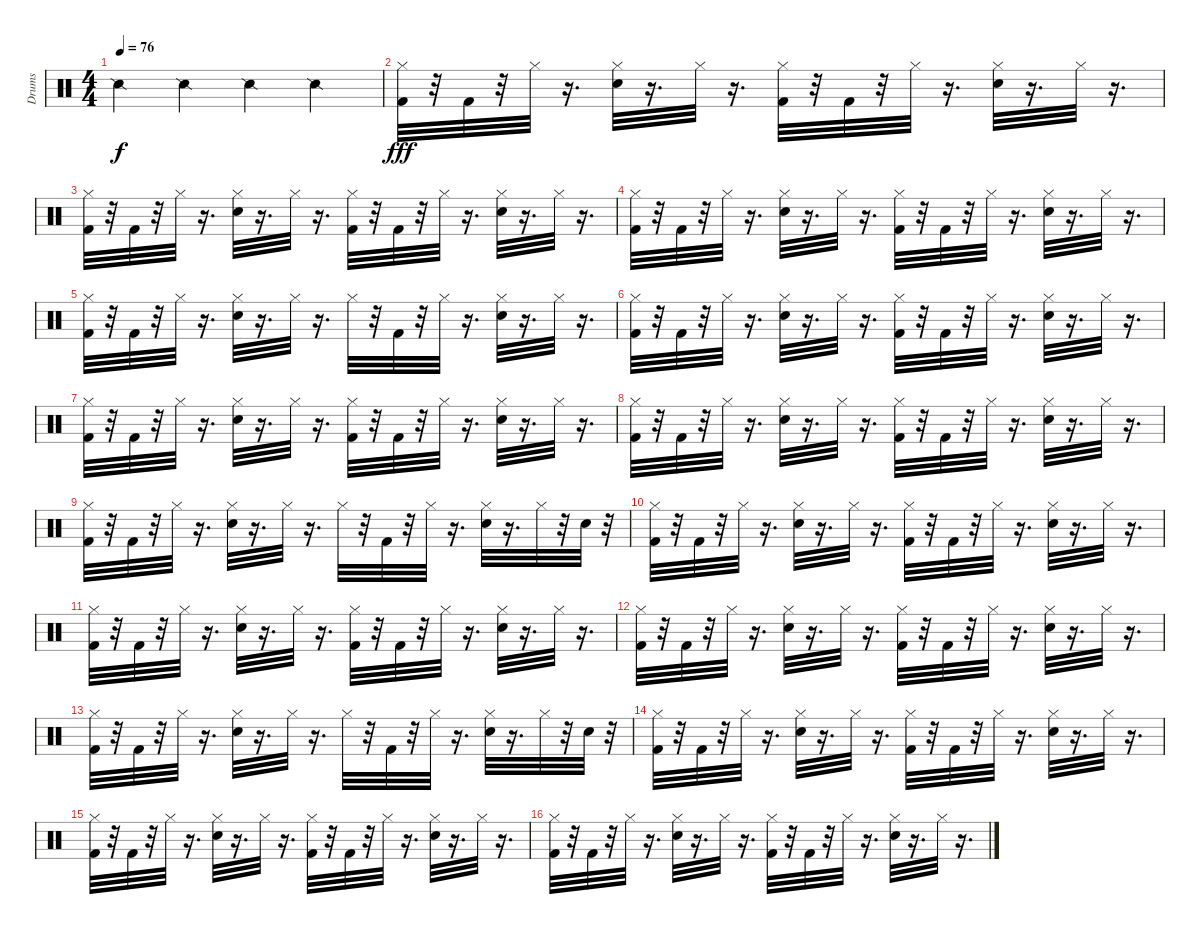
\track ("Drums" "Drums") {instrument percussion}
\staff {score}
\articulation defaults
\ts (4 4)
\tempo 76
\clef neutral
\ks c "Snare (side stick) 2".4{dy f} "Snare (side stick) 2".4 "Snare (side stick) 2".4 "Snare (side stick) 2".4
|
("Hi-Hat (closed)" "Kick (hit) 2").32{dy fff} r.32 "Kick (hit) 2".32 r.32 "Hi-Hat (closed)".32 r.16{d} ("Hi-Hat (closed)" "Electric Snare (hit)").32 r.16{d} "Hi-Hat (closed)".32 r.16{d} ("Hi-Hat (closed)" "Kick (hit) 2").32 r.32 "Kick (hit) 2".32 r.32 "Hi-Hat (closed)".32 r.16{d} ("Hi-Hat (closed)" "Electric Snare (hit)").32 r.16{d} "Hi-Hat (closed)".32 r.16{d} |
("Kick (hit) 2" "Hi-Hat (closed)").32 r.32 "Kick (hit) 2".32 r.32 "Hi-Hat (closed)".32 r.16{d} ("Electric Snare (hit)" "Hi-Hat (closed)").32 r.16{d} "Hi-Hat (closed)".32 r.16{d} ("Kick (hit) 2" "Hi-Hat (closed)").32 r.32 "Kick (hit) 2".32 r.32 "Hi-Hat (closed)".32 r.16{d} ("Electric Snare (hit)" "Hi-Hat (closed)").32 r.16{d} "Hi-Hat (closed)".32 r.16{d} |
("Hi-Hat (closed)" "Kick (hit) 2").32 r.32 "Kick (hit) 2".32 r.32 "Hi-Hat (closed)".32 r.16{d} ("Hi-Hat (closed)" "Electric Snare (hit)").32 r.16{d} "Hi-Hat (closed)".32 r.16{d} ("Hi-Hat (closed)" "Kick (hit) 2").32 r.32 "Kick (hit) 2".32 r.32 "Hi-Hat (closed)".32 r.16{d} ("Hi-Hat (closed)" "Electric Snare (hit)").32 r.16{d} "Hi-Hat (closed)".32 r.16{d} |
("Kick (hit) 2" "Hi-Hat (closed)").32 r.32 "Kick (hit) 2".32 r.32 "Hi-Hat (closed)".32 r.16{d} ("Electric Snare (hit)" "Hi-Hat (closed)").32 r.16{d} "Hi-Hat (closed)".32 r.16{d} "Hi-Hat (closed)".32 r.32 "Kick (hit) 2".32 r.32 "Hi-Hat (closed)".32 r.16{d} ("Electric Snare (hit)" "Hi-Hat (closed)").32 r.16{d} "Hi-Hat (closed)".32 r.16{d} |
("Hi-Hat (closed)" "Kick (hit) 2").32 r.32 "Kick (hit) 2".32 r.32 "Hi-Hat (closed)".32 r.16{d} ("Hi-Hat (closed)" "Electric Snare (hit)").32 r.16{d} "Hi-Hat (closed)".32 r.16{d} ("Hi-Hat (closed)" "Kick (hit) 2").32 r.32 "Kick (hit) 2".32 r.32 "Hi-Hat (closed)".32 r.16{d} ("Hi-Hat (closed)" "Electric Snare (hit)").32 r.16{d} "Hi-Hat (closed)".32 r.16{d} |
("Kick (hit) 2" "Hi-Hat (closed)").32 r.32 "Kick (hit) 2".32 r.32 "Hi-Hat (closed)".32 r.16{d} ("Electric Snare (hit)" "Hi-Hat (closed)").32 r.16{d} "Hi-Hat (closed)".32 r.16{d} ("Kick (hit) 2" "Hi-Hat (closed)").32 r.32 "Kick (hit) 2".32 r.32 "Hi-Hat (closed)".32 r.16{d} ("Electric Snare (hit)" "Hi-Hat (closed)").32 r.16{d} "Hi-Hat (closed)".32 r.16{d} |
("Hi-Hat (closed)" "Kick (hit) 2").32 r.32 "Kick (hit) 2".32 r.32 "Hi-Hat (closed)".32 r.16{d} ("Hi-Hat (closed)" "Electric Snare (hit)").32 r.16{d} "Hi-Hat (closed)".32 r.16{d} ("Hi-Hat (closed)" "Kick (hit) 2").32 r.32 "Kick (hit) 2".32 r.32 "Hi-Hat (closed)".32 r.16{d} ("Hi-Hat (closed)" "Electric Snare (hit)").32 r.16{d} "Hi-Hat (closed)".32 r.16{d} |
("Kick (hit) 2" "Hi-Hat (closed)").32 r.32 "Kick (hit) 2".32 r.32 "Hi-Hat (closed)".32 r.16{d} ("Electric Snare (hit)" "Hi-Hat (closed)").32 r.16{d} "Hi-Hat (closed)".32 r.16{d} "Hi-Hat (closed)".32 r.32 "Kick (hit) 2".32 r.32 "Hi-Hat (closed)".32 r.16{d} ("Electric Snare (hit)" "Hi-Hat (closed)").32 r.16{d} "Hi-Hat (closed)".32 r.32 "Electric Snare (hit)".32 r.32 |
("Hi-Hat (closed)" "Kick (hit) 2").32 r.32 "Kick (hit) 2".32 r.32 "Hi-Hat (closed)".32 r.16{d} ("Hi-Hat (closed)" "Electric Snare (hit)").32 r.16{d} "Hi-Hat (closed)".32 r.16{d} ("Hi-Hat (closed)" "Kick (hit) 2").32 r.32 "Kick (hit) 2".32 r.32 "Hi-Hat (closed)".32 r.16{d} ("Hi-Hat (closed)" "Electric Snare (hit)").32 r.16{d} "Hi-Hat (closed)".32 r.16{d} |
("Kick (hit) 2" "Hi-Hat (closed)").32 r.32 "Kick (hit) 2".32 r.32 "Hi-Hat (closed)".32 r.16{d} ("Electric Snare (hit)" "Hi-Hat (closed)").32 r.16{d} "Hi-Hat (closed)".32 r.16{d} ("Kick (hit) 2" "Hi-Hat (closed)").32 r.32 "Kick (hit) 2".32 r.32 "Hi-Hat (closed)".32 r.16{d} ("Electric Snare (hit)" "Hi-Hat (closed)").32 r.16{d} "Hi-Hat (closed)".32 r.16{d} |
("Hi-Hat (closed)" "Kick (hit) 2").32 r.32 "Kick (hit) 2".32 r.32 "Hi-Hat (closed)".32 r.16{d} ("Hi-Hat (closed)" "Electric Snare (hit)").32 r.16{d} "Hi-Hat (closed)".32 r.16{d} ("Hi-Hat (closed)" "Kick (hit) 2").32 r.32 "Kick (hit) 2".32 r.32 "Hi-Hat (closed)".32 r.16{d} ("Hi-Hat (closed)" "Electric Snare (hit)").32 r.16{d} "Hi-Hat (closed)".32 r.16{d} |
("Kick (hit) 2" "Hi-Hat (closed)").32 r.32 "Kick (hit) 2".32 r.32 "Hi-Hat (closed)".32 r.16{d} ("Electric Snare (hit)" "Hi-Hat (closed)").32 r.16{d} "Hi-Hat (closed)".32 r.16{d} "Hi-Hat (closed)".32 r.32 "Kick (hit) 2".32 r.32 "Hi-Hat (closed)".32 r.16{d} ("Electric Snare (hit)" "Hi-Hat (closed)").32 r.16{d} "Hi-Hat (closed)".32 r.32 "Electric Snare (hit)".32 r.32 |
("Hi-Hat (closed)" "Kick (hit) 2").32 r.32 "Kick (hit) 2".32 r.32 "Hi-Hat (closed)".32 r.16{d} ("Hi-Hat (closed)" "Electric Snare (hit)").32 r.16{d} "Hi-Hat (closed)".32 r.16{d} ("Hi-Hat (closed)" "Kick (hit) 2").32 r.32 "Kick (hit) 2".32 r.32 "Hi-Hat (closed)".32 r.16{d} ("Hi-Hat (closed)" "Electric Snare (hit)").32 r.16{d} "Hi-Hat (closed)".32 r.16{d} |
("Kick (hit) 2" "Hi-Hat (closed)").32 r.32 "Kick (hit) 2".32 r.32 "Hi-Hat (closed)".32 r.16{d} ("Electric Snare (hit)" "Hi-Hat (closed)").32 r.16{d} "Hi-Hat (closed)".32 r.16{d} ("Kick (hit) 2" "Hi-Hat (closed)").32 r.32 "Kick (hit) 2".32 r.32 "Hi-Hat (closed)".32 r.16{d} ("Electric Snare (hit)" "Hi-Hat (closed)").32 r.16{d} "Hi-Hat (closed)".32 r.16{d} |
("Hi-Hat (closed)" "Kick (hit) 2").32 r.32 "Kick (hit) 2".32 r.32 "Hi-Hat (closed)".32 r.16{d} ("Hi-Hat (closed)" "Electric Snare (hit)").32 r.16{d} "Hi-Hat (closed)".32 r.16{d} ("Hi-Hat (closed)" "Kick (hit) 2").32 r.32 "Kick (hit) 2".32 r.32 "Hi-Hat (closed)".32 r.16{d} ("Hi-Hat (closed)" "Electric Snare (hit)").32 r.16{d} "Hi-Hat (closed)".32 r.16{d}
